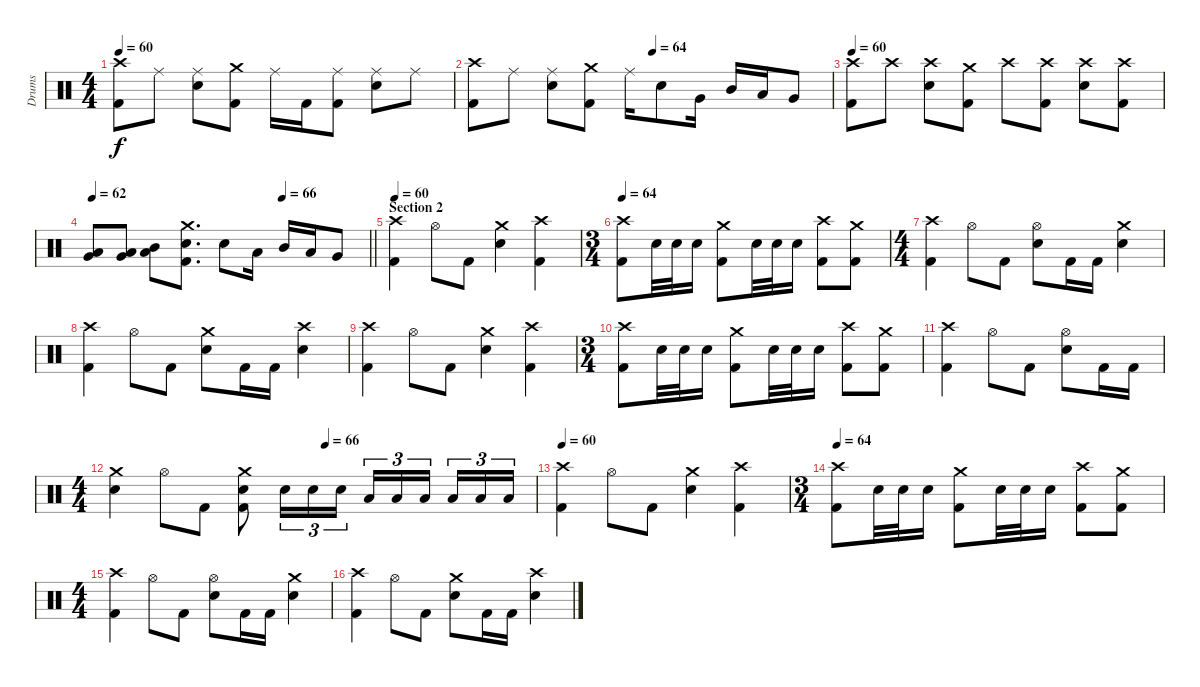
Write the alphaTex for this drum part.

\track ("Drums" "Drums") {instrument percussion}
\staff {score}
\articulation defaults
\ts (4 4)
\tempo 60
\clef neutral
\ks c
("Crash high (hit)" "Kick (hit) 2").8{dy f} "Ride (middle)".8 ("Ride (middle)" "Electric Snare (hit)").8 ("Crash medium (hit)" "Kick (hit) 2").8 "Ride (middle)".16 "Kick (hit) 2".16 ("Ride (middle)" "Kick (hit) 2").8 ("Ride (middle)" "Electric Snare (hit)").8 "Ride (middle)".8 |
\tempo (64 0.5)
("Crash high (hit)" "Kick (hit) 2").8 "Ride (middle)".8 ("Ride (middle)" "Electric Snare (hit)").8 ("Crash medium (hit)" "Kick (hit) 2").8 "Ride (middle)".16 "Electric Snare (hit)".8 "Very Low Tom (hit)".16 "Mid Tom (hit)".16 "Low Tom (hit)".16 "Very Low Tom (hit)".8 |
\tempo 60
("Crash high (hit)" "Kick (hit) 2").8 "Crash high (hit)".8 ("Crash high (hit)" "Electric Snare (hit)").8 ("Crash medium (hit)" "Kick (hit) 2").8 "Crash high (hit)".8 ("Crash high (hit)" "Kick (hit) 2").8 ("Crash high (hit)" "Electric Snare (hit)").8 ("Crash high (hit)" "Kick (hit) 2").8 |
\tempo 62
\tempo (66 0.6875)
\barLineRight lightlight
("Very Low Tom (hit)" "Low Floor Tom (hit)").8 ("Very Low Tom (hit)" "Low Floor Tom (hit)").8 ("Mid Tom (hit)" "Low Tom (hit)").8 ("Crash medium (hit)" "Electric Snare (hit)" "Kick (hit) 2").8{d} "Electric Snare (hit)".8 "Low Tom (hit)".16 "Mid Tom (hit)".16 "Low Tom (hit)".16 "Very Low Tom (hit)".8 |
\section ("" "Section 2")
\tempo 60
("Crash high (hit)" "Kick (hit) 2").4 "Hi-Hat (open)".8 "Kick (hit) 2".8 ("Crash medium (hit)" "Electric Snare (hit)").4 ("Crash high (hit)" "Kick (hit) 2").4 |
\ts (3 4)
\tempo 64
("Crash high (hit)" "Kick (hit) 2").8 "Electric Snare (hit)".32 "Electric Snare (hit)".32 "Electric Snare (hit)".16 ("Crash medium (hit)" "Kick (hit) 2").8 "Electric Snare (hit)".32 "Electric Snare (hit)".32 "Electric Snare (hit)".16 ("Crash high (hit)" "Kick (hit) 2").8 ("Crash medium (hit)" "Kick (hit) 2").8 |
\ts (4 4)
("Crash high (hit)" "Kick (hit) 2").4 "Hi-Hat (open)".8 "Kick (hit) 2".8 ("Hi-Hat (open)" "Electric Snare (hit)").8 "Kick (hit) 2".16 "Kick (hit) 2".16 ("Crash medium (hit)" "Electric Snare (hit)").4 |
("Crash high (hit)" "Kick (hit) 2").4 "Hi-Hat (open)".8 "Kick (hit) 2".8 ("Crash medium (hit)" "Electric Snare (hit)").8 "Kick (hit) 2".16 "Kick (hit) 2".16 ("Crash high (hit)" "Electric Snare (hit)").4 |
("Crash high (hit)" "Kick (hit) 2").4 "Hi-Hat (open)".8 "Kick (hit) 2".8 ("Crash medium (hit)" "Electric Snare (hit)").4 ("Crash high (hit)" "Kick (hit) 2").4 |
\ts (3 4)
("Crash high (hit)" "Kick (hit) 2").8 "Electric Snare (hit)".32 "Electric Snare (hit)".32 "Electric Snare (hit)".16 ("Crash medium (hit)" "Kick (hit) 2").8 "Electric Snare (hit)".32 "Electric Snare (hit)".32 "Electric Snare (hit)".16 ("Crash high (hit)" "Kick (hit) 2").8 ("Crash medium (hit)" "Kick (hit) 2").8 |
("Crash high (hit)" "Kick (hit) 2").4 "Hi-Hat (open)".8 "Kick (hit) 2".8 ("Hi-Hat (open)" "Electric Snare (hit)").8 "Kick (hit) 2".16 "Kick (hit) 2".16 |
\ts (4 4)
\tempo (66 0.5)
("Crash medium (hit)" "Electric Snare (hit)").4 "Hi-Hat (open)".8 "Kick (hit) 2".8 ("Crash medium (hit)" "Electric Snare (hit)" "Kick (hit) 2").8 "Electric Snare (hit)".16{tu (3 2)} "Electric Snare (hit)".16{tu (3 2)} "Electric Snare (hit)".16{tu (3 2)} "Low Tom (hit)".16{tu (3 2)} "Low Tom (hit)".16{tu (3 2)} "Low Tom (hit)".16{tu (3 2) beam splitsecondary} "Low Floor Tom (hit)".16{tu (3 2)} "Low Floor Tom (hit)".16{tu (3 2)} "Low Floor Tom (hit)".16{tu (3 2)} |
\tempo 60
("Crash high (hit)" "Kick (hit) 2").4 "Hi-Hat (open)".8 "Kick (hit) 2".8 ("Crash medium (hit)" "Electric Snare (hit)").4 ("Crash high (hit)" "Kick (hit) 2").4 |
\ts (3 4)
\tempo 64
("Crash high (hit)" "Kick (hit) 2").8 "Electric Snare (hit)".32 "Electric Snare (hit)".32 "Electric Snare (hit)".16 ("Crash medium (hit)" "Kick (hit) 2").8 "Electric Snare (hit)".32 "Electric Snare (hit)".32 "Electric Snare (hit)".16 ("Crash high (hit)" "Kick (hit) 2").8 ("Crash medium (hit)" "Kick (hit) 2").8 |
\ts (4 4)
("Crash high (hit)" "Kick (hit) 2").4 "Hi-Hat (open)".8 "Kick (hit) 2".8 ("Hi-Hat (open)" "Electric Snare (hit)").8 "Kick (hit) 2".16 "Kick (hit) 2".16 ("Crash medium (hit)" "Electric Snare (hit)").4 |
("Crash high (hit)" "Kick (hit) 2").4 "Hi-Hat (open)".8 "Kick (hit) 2".8 ("Crash medium (hit)" "Electric Snare (hit)").8 "Kick (hit) 2".16 "Kick (hit) 2".16 ("Crash high (hit)" "Electric Snare (hit)").4
